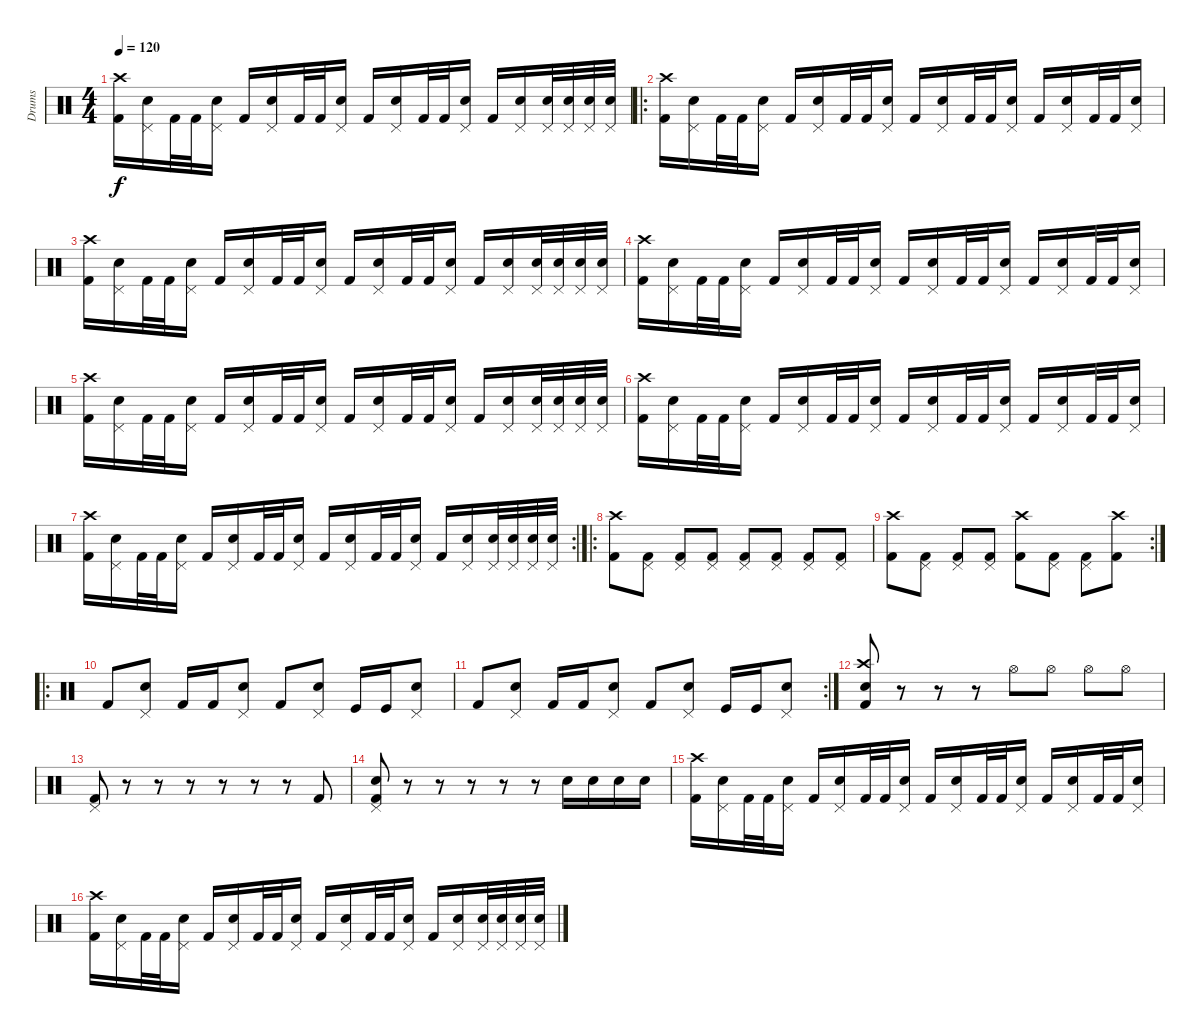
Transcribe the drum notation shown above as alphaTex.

\track ("Drums" "Drums") {instrument percussion}
\staff {score}
\articulation defaults
\ts (4 4)
\tempo 120
\clef neutral
\ks c
("Kick (hit) 2" "Crash high (hit)").16{dy f} ("Electric Snare (hit)" "Pedal Hi-Hat (hit)").16 "Kick (hit) 2".32 "Kick (hit) 2".32 ("Electric Snare (hit)" "Pedal Hi-Hat (hit)").16 "Kick (hit) 2".16 ("Electric Snare (hit)" "Pedal Hi-Hat (hit)").16 "Kick (hit) 2".32 "Kick (hit) 2".32 ("Electric Snare (hit)" "Pedal Hi-Hat (hit)").16 "Kick (hit) 2".16 ("Electric Snare (hit)" "Pedal Hi-Hat (hit)").16 "Kick (hit) 2".32 "Kick (hit) 2".32 ("Electric Snare (hit)" "Pedal Hi-Hat (hit)").16 "Kick (hit) 2".16 ("Electric Snare (hit)" "Pedal Hi-Hat (hit)").16 ("Electric Snare (hit)" "Pedal Hi-Hat (hit)").32 ("Electric Snare (hit)" "Pedal Hi-Hat (hit)").32 ("Electric Snare (hit)" "Pedal Hi-Hat (hit)").32 ("Electric Snare (hit)" "Pedal Hi-Hat (hit)").32 |
\ro
("Kick (hit) 2" "Crash high (hit)").16 ("Electric Snare (hit)" "Pedal Hi-Hat (hit)").16 "Kick (hit) 2".32 "Kick (hit) 2".32 ("Electric Snare (hit)" "Pedal Hi-Hat (hit)").16 "Kick (hit) 2".16 ("Electric Snare (hit)" "Pedal Hi-Hat (hit)").16 "Kick (hit) 2".32 "Kick (hit) 2".32 ("Electric Snare (hit)" "Pedal Hi-Hat (hit)").16 "Kick (hit) 2".16 ("Electric Snare (hit)" "Pedal Hi-Hat (hit)").16 "Kick (hit) 2".32 "Kick (hit) 2".32 ("Electric Snare (hit)" "Pedal Hi-Hat (hit)").16 "Kick (hit) 2".16 ("Electric Snare (hit)" "Pedal Hi-Hat (hit)").16 "Kick (hit) 2".32 "Kick (hit) 2".32 ("Electric Snare (hit)" "Pedal Hi-Hat (hit)").16 |
("Kick (hit) 2" "Crash high (hit)").16 ("Electric Snare (hit)" "Pedal Hi-Hat (hit)").16 "Kick (hit) 2".32 "Kick (hit) 2".32 ("Electric Snare (hit)" "Pedal Hi-Hat (hit)").16 "Kick (hit) 2".16 ("Electric Snare (hit)" "Pedal Hi-Hat (hit)").16 "Kick (hit) 2".32 "Kick (hit) 2".32 ("Electric Snare (hit)" "Pedal Hi-Hat (hit)").16 "Kick (hit) 2".16 ("Electric Snare (hit)" "Pedal Hi-Hat (hit)").16 "Kick (hit) 2".32 "Kick (hit) 2".32 ("Electric Snare (hit)" "Pedal Hi-Hat (hit)").16 "Kick (hit) 2".16 ("Electric Snare (hit)" "Pedal Hi-Hat (hit)").16 ("Electric Snare (hit)" "Pedal Hi-Hat (hit)").32 ("Electric Snare (hit)" "Pedal Hi-Hat (hit)").32 ("Electric Snare (hit)" "Pedal Hi-Hat (hit)").32 ("Electric Snare (hit)" "Pedal Hi-Hat (hit)").32 |
("Kick (hit) 2" "Crash high (hit)").16 ("Electric Snare (hit)" "Pedal Hi-Hat (hit)").16 "Kick (hit) 2".32 "Kick (hit) 2".32 ("Electric Snare (hit)" "Pedal Hi-Hat (hit)").16 "Kick (hit) 2".16 ("Electric Snare (hit)" "Pedal Hi-Hat (hit)").16 "Kick (hit) 2".32 "Kick (hit) 2".32 ("Electric Snare (hit)" "Pedal Hi-Hat (hit)").16 "Kick (hit) 2".16 ("Electric Snare (hit)" "Pedal Hi-Hat (hit)").16 "Kick (hit) 2".32 "Kick (hit) 2".32 ("Electric Snare (hit)" "Pedal Hi-Hat (hit)").16 "Kick (hit) 2".16 ("Electric Snare (hit)" "Pedal Hi-Hat (hit)").16 "Kick (hit) 2".32 "Kick (hit) 2".32 ("Electric Snare (hit)" "Pedal Hi-Hat (hit)").16 |
("Kick (hit) 2" "Crash high (hit)").16 ("Electric Snare (hit)" "Pedal Hi-Hat (hit)").16 "Kick (hit) 2".32 "Kick (hit) 2".32 ("Electric Snare (hit)" "Pedal Hi-Hat (hit)").16 "Kick (hit) 2".16 ("Electric Snare (hit)" "Pedal Hi-Hat (hit)").16 "Kick (hit) 2".32 "Kick (hit) 2".32 ("Electric Snare (hit)" "Pedal Hi-Hat (hit)").16 "Kick (hit) 2".16 ("Electric Snare (hit)" "Pedal Hi-Hat (hit)").16 "Kick (hit) 2".32 "Kick (hit) 2".32 ("Electric Snare (hit)" "Pedal Hi-Hat (hit)").16 "Kick (hit) 2".16 ("Electric Snare (hit)" "Pedal Hi-Hat (hit)").16 ("Electric Snare (hit)" "Pedal Hi-Hat (hit)").32 ("Electric Snare (hit)" "Pedal Hi-Hat (hit)").32 ("Electric Snare (hit)" "Pedal Hi-Hat (hit)").32 ("Electric Snare (hit)" "Pedal Hi-Hat (hit)").32 |
("Kick (hit) 2" "Crash high (hit)").16 ("Electric Snare (hit)" "Pedal Hi-Hat (hit)").16 "Kick (hit) 2".32 "Kick (hit) 2".32 ("Electric Snare (hit)" "Pedal Hi-Hat (hit)").16 "Kick (hit) 2".16 ("Electric Snare (hit)" "Pedal Hi-Hat (hit)").16 "Kick (hit) 2".32 "Kick (hit) 2".32 ("Electric Snare (hit)" "Pedal Hi-Hat (hit)").16 "Kick (hit) 2".16 ("Electric Snare (hit)" "Pedal Hi-Hat (hit)").16 "Kick (hit) 2".32 "Kick (hit) 2".32 ("Electric Snare (hit)" "Pedal Hi-Hat (hit)").16 "Kick (hit) 2".16 ("Electric Snare (hit)" "Pedal Hi-Hat (hit)").16 "Kick (hit) 2".32 "Kick (hit) 2".32 ("Electric Snare (hit)" "Pedal Hi-Hat (hit)").16 |
\rc 2
("Kick (hit) 2" "Crash high (hit)").16 ("Electric Snare (hit)" "Pedal Hi-Hat (hit)").16 "Kick (hit) 2".32 "Kick (hit) 2".32 ("Electric Snare (hit)" "Pedal Hi-Hat (hit)").16 "Kick (hit) 2".16 ("Electric Snare (hit)" "Pedal Hi-Hat (hit)").16 "Kick (hit) 2".32 "Kick (hit) 2".32 ("Electric Snare (hit)" "Pedal Hi-Hat (hit)").16 "Kick (hit) 2".16 ("Electric Snare (hit)" "Pedal Hi-Hat (hit)").16 "Kick (hit) 2".32 "Kick (hit) 2".32 ("Electric Snare (hit)" "Pedal Hi-Hat (hit)").16 "Kick (hit) 2".16 ("Electric Snare (hit)" "Pedal Hi-Hat (hit)").16 ("Electric Snare (hit)" "Pedal Hi-Hat (hit)").32 ("Electric Snare (hit)" "Pedal Hi-Hat (hit)").32 ("Electric Snare (hit)" "Pedal Hi-Hat (hit)").32 ("Electric Snare (hit)" "Pedal Hi-Hat (hit)").32 |
\ro
("Kick (hit) 2" "Crash high (hit)").8 ("Kick (hit) 2" "Pedal Hi-Hat (hit)").8 ("Kick (hit) 2" "Pedal Hi-Hat (hit)").8 ("Kick (hit) 2" "Pedal Hi-Hat (hit)").8 ("Kick (hit) 2" "Pedal Hi-Hat (hit)").8 ("Kick (hit) 2" "Pedal Hi-Hat (hit)").8 ("Kick (hit) 2" "Pedal Hi-Hat (hit)").8 ("Kick (hit) 2" "Pedal Hi-Hat (hit)").8 |
\rc 2
("Kick (hit) 2" "Crash high (hit)").8 ("Kick (hit) 2" "Pedal Hi-Hat (hit)").8 ("Kick (hit) 2" "Pedal Hi-Hat (hit)").8 ("Kick (hit) 2" "Pedal Hi-Hat (hit)").8 ("Kick (hit) 2" "Crash high (hit)").8 ("Kick (hit) 2" "Pedal Hi-Hat (hit)").8 ("Kick (hit) 2" "Pedal Hi-Hat (hit)").8 ("Kick (hit) 2" "Crash high (hit)").8 |
\ro "Kick (hit) 2".8
("Electric Snare (hit)" "Pedal Hi-Hat (hit)").8 "Kick (hit) 2".16 "Kick (hit) 2".16 ("Electric Snare (hit)" "Pedal Hi-Hat (hit)").8 "Kick (hit) 2".8 ("Electric Snare (hit)" "Pedal Hi-Hat (hit)").8 "Kick (hit)".16 "Kick (hit)".16 ("Electric Snare (hit)" "Pedal Hi-Hat (hit)").8 |
\rc 2 "Kick (hit) 2".8
("Electric Snare (hit)" "Pedal Hi-Hat (hit)").8 "Kick (hit) 2".16 "Kick (hit) 2".16 ("Electric Snare (hit)" "Pedal Hi-Hat (hit)").8 "Kick (hit) 2".8 ("Electric Snare (hit)" "Pedal Hi-Hat (hit)").8 "Kick (hit)".16 "Kick (hit)".16 ("Electric Snare (hit)" "Pedal Hi-Hat (hit)").8 |
("Kick (hit) 2" "Electric Snare (hit)" "Crash high (hit)").8 r.8 r.8 r.8 "Hi-Hat (open)".8 "Hi-Hat (open)".8 "Hi-Hat (open)".8 "Hi-Hat (open)".8 |
("Kick (hit) 2" "Pedal Hi-Hat (hit)").8 r.8 r.8 r.8 r.8 r.8 r.8 "Kick (hit) 2".8 |
("Kick (hit) 2" "Electric Snare (hit)" "Pedal Hi-Hat (hit)").8 r.8 r.8 r.8 r.8 r.8 "Electric Snare (hit)".16 "Electric Snare (hit)".16 "Electric Snare (hit)".16 "Electric Snare (hit)".16 |
("Kick (hit) 2" "Crash high (hit)").16 ("Electric Snare (hit)" "Pedal Hi-Hat (hit)").16 "Kick (hit) 2".32 "Kick (hit) 2".32 ("Electric Snare (hit)" "Pedal Hi-Hat (hit)").16 "Kick (hit) 2".16 ("Electric Snare (hit)" "Pedal Hi-Hat (hit)").16 "Kick (hit) 2".32 "Kick (hit) 2".32 ("Electric Snare (hit)" "Pedal Hi-Hat (hit)").16 "Kick (hit) 2".16 ("Electric Snare (hit)" "Pedal Hi-Hat (hit)").16 "Kick (hit) 2".32 "Kick (hit) 2".32 ("Electric Snare (hit)" "Pedal Hi-Hat (hit)").16 "Kick (hit) 2".16 ("Electric Snare (hit)" "Pedal Hi-Hat (hit)").16 "Kick (hit) 2".32 "Kick (hit) 2".32 ("Electric Snare (hit)" "Pedal Hi-Hat (hit)").16 |
("Kick (hit) 2" "Crash high (hit)").16 ("Electric Snare (hit)" "Pedal Hi-Hat (hit)").16 "Kick (hit) 2".32 "Kick (hit) 2".32 ("Electric Snare (hit)" "Pedal Hi-Hat (hit)").16 "Kick (hit) 2".16 ("Electric Snare (hit)" "Pedal Hi-Hat (hit)").16 "Kick (hit) 2".32 "Kick (hit) 2".32 ("Electric Snare (hit)" "Pedal Hi-Hat (hit)").16 "Kick (hit) 2".16 ("Electric Snare (hit)" "Pedal Hi-Hat (hit)").16 "Kick (hit) 2".32 "Kick (hit) 2".32 ("Electric Snare (hit)" "Pedal Hi-Hat (hit)").16 "Kick (hit) 2".16 ("Electric Snare (hit)" "Pedal Hi-Hat (hit)").16 ("Electric Snare (hit)" "Pedal Hi-Hat (hit)").32 ("Electric Snare (hit)" "Pedal Hi-Hat (hit)").32 ("Electric Snare (hit)" "Pedal Hi-Hat (hit)").32 ("Electric Snare (hit)" "Pedal Hi-Hat (hit)").32
